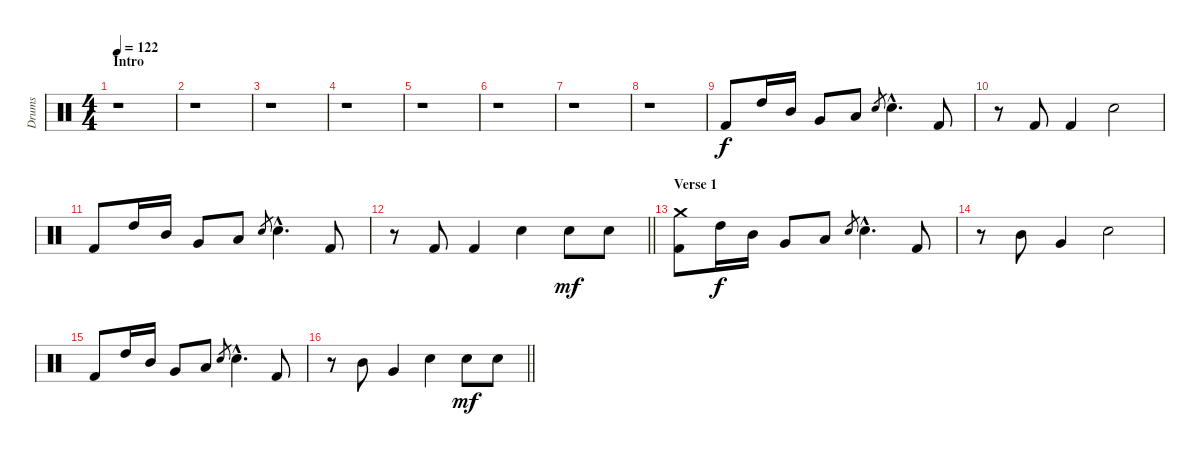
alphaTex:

\track ("Drums" "Drums") {instrument percussion}
\staff {score}
\articulation defaults
\ts (4 4)
\section ("" "Intro")
\tempo 122
\clef neutral
\ks c
r.1{dy f} |
r.1 |
r.1 |
r.1 |
r.1 |
r.1 |
r.1 |
r.1 |
"Kick (hit) 2".8 "High Tom (hit)".16 "Mid Tom (hit)".16 "Very Low Tom (hit)".8 "Low Floor Tom (hit)".8 "Snare (hit) 2".8{gr} "Snare (hit) 2"{hac}.4{d} "Kick (hit) 2".8 |
r.8 "Kick (hit) 2".8 "Kick (hit) 2".4 "Snare (hit) 2".2 |
"Kick (hit) 2".8 "High Tom (hit)".16 "Mid Tom (hit)".16 "Very Low Tom (hit)".8 "Low Floor Tom (hit)".8 "Snare (hit) 2".8{gr} "Snare (hit) 2"{hac}.4{d} "Kick (hit) 2".8 |
\barLineRight lightlight
r.8 "Kick (hit) 2".8 "Kick (hit) 2".4 "Snare (hit) 2".4 "Snare (hit) 2".8{dy mf} "Snare (hit) 2".8 |
\section ("" "Verse 1")
("Kick (hit) 2" "Crash medium (hit)").8 "High Tom (hit)".16{dy f} "Mid Tom (hit)".16 "Very Low Tom (hit)".8 "Low Floor Tom (hit)".8 "Snare (hit) 2".8{gr} "Snare (hit) 2"{hac}.4{d} "Kick (hit) 2".8 |
r.8 "Mid Tom (hit)".8 "Very Low Tom (hit)".4 "Snare (hit) 2".2 |
"Kick (hit) 2".8 "High Tom (hit)".16 "Mid Tom (hit)".16 "Very Low Tom (hit)".8 "Low Floor Tom (hit)".8 "Snare (hit) 2".8{gr} "Snare (hit) 2"{hac}.4{d} "Kick (hit) 2".8 |
\barLineRight lightlight
r.8 "Mid Tom (hit)".8 "Very Low Tom (hit)".4 "Snare (hit) 2".4 "Snare (hit) 2".8{dy mf} "Snare (hit) 2".8
